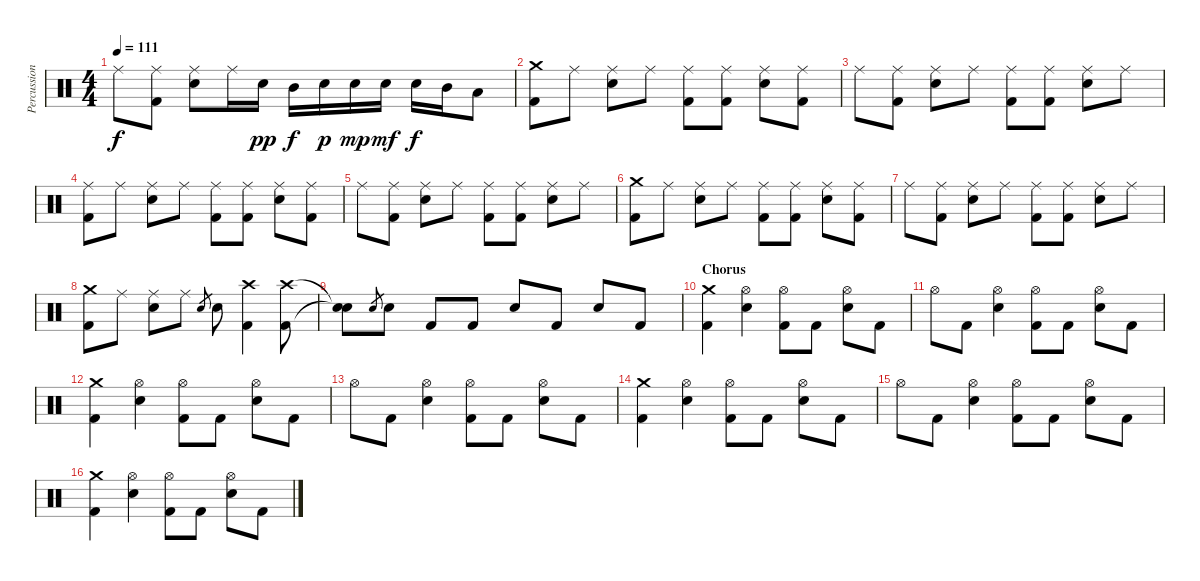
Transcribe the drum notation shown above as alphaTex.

\track ("Percussion" "Percussion") {instrument percussion}
\staff {score}
\articulation defaults
\ts (4 4)
\tempo 111
\clef neutral
\ks c "Ride (middle)".8{dy f}
("Ride (middle)" "Kick (hit) 2").8 ("Ride (middle)" "Electric Snare (hit)").8 "Ride (middle)".16 "Electric Snare (hit)".16{dy pp} "Mid Tom (hit)".16{dy f} "Electric Snare (hit)".16{dy p} "Electric Snare (hit)".16{dy mp} "Electric Snare (hit)".16{dy mf} "Electric Snare (hit)".16{dy f} "Mid Tom (hit)".16 "Low Floor Tom (hit)".8 |
("Crash medium (hit)" "Kick (hit) 2").8 "Ride (middle)".8 ("Ride (middle)" "Electric Snare (hit)").8 "Ride (middle)".8 ("Ride (middle)" "Kick (hit) 2").8 ("Ride (middle)" "Kick (hit) 2").8 ("Ride (middle)" "Electric Snare (hit)").8 ("Ride (middle)" "Kick (hit) 2").8 |
"Ride (middle)".8 ("Ride (middle)" "Kick (hit) 2").8 ("Ride (middle)" "Electric Snare (hit)").8 "Ride (middle)".8 ("Ride (middle)" "Kick (hit) 2").8 ("Ride (middle)" "Kick (hit) 2").8 ("Ride (middle)" "Electric Snare (hit)").8 "Ride (middle)".8 |
("Ride (middle)" "Kick (hit) 2").8 "Ride (middle)".8 ("Ride (middle)" "Electric Snare (hit)").8 "Ride (middle)".8 ("Ride (middle)" "Kick (hit) 2").8 ("Ride (middle)" "Kick (hit) 2").8 ("Ride (middle)" "Electric Snare (hit)").8 ("Ride (middle)" "Kick (hit) 2").8 |
"Ride (middle)".8 ("Ride (middle)" "Kick (hit) 2").8 ("Ride (middle)" "Electric Snare (hit)").8 "Ride (middle)".8 ("Ride (middle)" "Kick (hit) 2").8 ("Ride (middle)" "Kick (hit) 2").8 ("Ride (middle)" "Electric Snare (hit)").8 "Ride (middle)".8 |
("Crash medium (hit)" "Kick (hit) 2").8 "Ride (middle)".8 ("Ride (middle)" "Electric Snare (hit)").8 "Ride (middle)".8 ("Ride (middle)" "Kick (hit) 2").8 ("Ride (middle)" "Kick (hit) 2").8 ("Ride (middle)" "Electric Snare (hit)").8 ("Ride (middle)" "Kick (hit) 2").8 |
"Ride (middle)".8 ("Ride (middle)" "Kick (hit) 2").8 ("Ride (middle)" "Electric Snare (hit)").8 "Ride (middle)".8 ("Ride (middle)" "Kick (hit) 2").8 ("Ride (middle)" "Kick (hit) 2").8 ("Ride (middle)" "Electric Snare (hit)").8 "Ride (middle)".8 |
("Crash medium (hit)" "Kick (hit) 2").8 "Ride (middle)".8 ("Ride (middle)" "Electric Snare (hit)").8 "Ride (middle)".8 "Electric Snare (hit)".8{gr} "Electric Snare (hit)".8 ("Crash high (hit)" "Kick (hit) 2").4 ("Crash high (hit)" "Kick (hit) 2").8 |
("Snare (hit)"{t} "Snare (hit)"{t}).8 "Electric Snare (hit)".8{gr} "Electric Snare (hit)".8 "Kick (hit) 2".8 "Kick (hit) 2".8 "Electric Snare (hit)".8 "Kick (hit) 2".8 "Electric Snare (hit)".8 "Kick (hit) 2".8 |
\section ("" "Chorus")
("Crash medium (hit)" "Kick (hit) 2").4 ("Hi-Hat (open)" "Electric Snare (hit)").4 ("Hi-Hat (open)" "Kick (hit) 2").8 "Kick (hit) 2".8 ("Hi-Hat (open)" "Electric Snare (hit)").8 "Kick (hit) 2".8 |
"Hi-Hat (open)".8 "Kick (hit) 2".8 ("Hi-Hat (open)" "Electric Snare (hit)").4 ("Hi-Hat (open)" "Kick (hit) 2").8 "Kick (hit) 2".8 ("Hi-Hat (open)" "Electric Snare (hit)").8 "Kick (hit) 2".8 |
("Crash medium (hit)" "Kick (hit) 2").4 ("Hi-Hat (open)" "Electric Snare (hit)").4 ("Hi-Hat (open)" "Kick (hit) 2").8 "Kick (hit) 2".8 ("Hi-Hat (open)" "Electric Snare (hit)").8 "Kick (hit) 2".8 |
"Hi-Hat (open)".8 "Kick (hit) 2".8 ("Hi-Hat (open)" "Electric Snare (hit)").4 ("Hi-Hat (open)" "Kick (hit) 2").8 "Kick (hit) 2".8 ("Hi-Hat (open)" "Electric Snare (hit)").8 "Kick (hit) 2".8 |
("Crash medium (hit)" "Kick (hit) 2").4 ("Hi-Hat (open)" "Electric Snare (hit)").4 ("Hi-Hat (open)" "Kick (hit) 2").8 "Kick (hit) 2".8 ("Hi-Hat (open)" "Electric Snare (hit)").8 "Kick (hit) 2".8 |
"Hi-Hat (open)".8 "Kick (hit) 2".8 ("Hi-Hat (open)" "Electric Snare (hit)").4 ("Hi-Hat (open)" "Kick (hit) 2").8 "Kick (hit) 2".8 ("Hi-Hat (open)" "Electric Snare (hit)").8 "Kick (hit) 2".8 |
("Crash medium (hit)" "Kick (hit) 2").4 ("Hi-Hat (open)" "Electric Snare (hit)").4 ("Hi-Hat (open)" "Kick (hit) 2").8 "Kick (hit) 2".8 ("Hi-Hat (open)" "Electric Snare (hit)").8 "Kick (hit) 2".8
